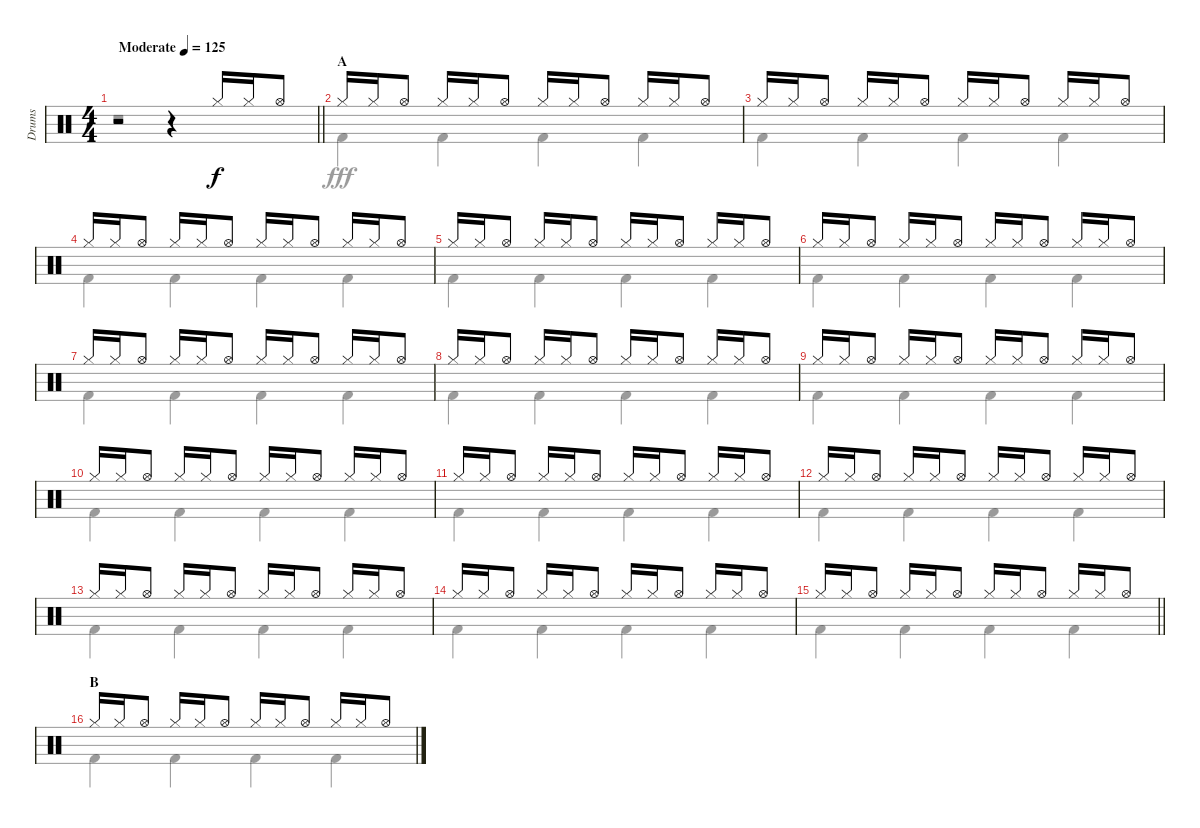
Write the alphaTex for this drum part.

\track ("Drums" "Drums") {instrument percussion}
\staff {score}
\articulation defaults
\voice
\ts (4 4)
\tempo (125 "Moderate")
\clef neutral
\barLineRight lightlight
\ks c
r.2{dy f} r.4 "Hi-Hat (closed)".16 "Hi-Hat (closed)".16 "Hi-Hat (open)".8 |
\section ("" "A")
"Hi-Hat (closed)".16 "Hi-Hat (closed)".16 "Hi-Hat (open)".8 "Hi-Hat (closed)".16 "Hi-Hat (closed)".16 "Hi-Hat (open)".8 "Hi-Hat (closed)".16 "Hi-Hat (closed)".16 "Hi-Hat (open)".8 "Hi-Hat (closed)".16 "Hi-Hat (closed)".16 "Hi-Hat (open)".8 |
"Hi-Hat (closed)".16 "Hi-Hat (closed)".16 "Hi-Hat (open)".8 "Hi-Hat (closed)".16 "Hi-Hat (closed)".16 "Hi-Hat (open)".8 "Hi-Hat (closed)".16 "Hi-Hat (closed)".16 "Hi-Hat (open)".8 "Hi-Hat (closed)".16 "Hi-Hat (closed)".16 "Hi-Hat (open)".8 |
"Hi-Hat (closed)".16 "Hi-Hat (closed)".16 "Hi-Hat (open)".8 "Hi-Hat (closed)".16 "Hi-Hat (closed)".16 "Hi-Hat (open)".8 "Hi-Hat (closed)".16 "Hi-Hat (closed)".16 "Hi-Hat (open)".8 "Hi-Hat (closed)".16 "Hi-Hat (closed)".16 "Hi-Hat (open)".8 |
"Hi-Hat (closed)".16 "Hi-Hat (closed)".16 "Hi-Hat (open)".8 "Hi-Hat (closed)".16 "Hi-Hat (closed)".16 "Hi-Hat (open)".8 "Hi-Hat (closed)".16 "Hi-Hat (closed)".16 "Hi-Hat (open)".8 "Hi-Hat (closed)".16 "Hi-Hat (closed)".16 "Hi-Hat (open)".8 |
"Hi-Hat (closed)".16 "Hi-Hat (closed)".16 "Hi-Hat (open)".8 "Hi-Hat (closed)".16 "Hi-Hat (closed)".16 "Hi-Hat (open)".8 "Hi-Hat (closed)".16 "Hi-Hat (closed)".16 "Hi-Hat (open)".8 "Hi-Hat (closed)".16 "Hi-Hat (closed)".16 "Hi-Hat (open)".8 |
"Hi-Hat (closed)".16 "Hi-Hat (closed)".16 "Hi-Hat (open)".8 "Hi-Hat (closed)".16 "Hi-Hat (closed)".16 "Hi-Hat (open)".8 "Hi-Hat (closed)".16 "Hi-Hat (closed)".16 "Hi-Hat (open)".8 "Hi-Hat (closed)".16 "Hi-Hat (closed)".16 "Hi-Hat (open)".8 |
"Hi-Hat (closed)".16 "Hi-Hat (closed)".16 "Hi-Hat (open)".8 "Hi-Hat (closed)".16 "Hi-Hat (closed)".16 "Hi-Hat (open)".8 "Hi-Hat (closed)".16 "Hi-Hat (closed)".16 "Hi-Hat (open)".8 "Hi-Hat (closed)".16 "Hi-Hat (closed)".16 "Hi-Hat (open)".8 |
"Hi-Hat (closed)".16 "Hi-Hat (closed)".16 "Hi-Hat (open)".8 "Hi-Hat (closed)".16 "Hi-Hat (closed)".16 "Hi-Hat (open)".8 "Hi-Hat (closed)".16 "Hi-Hat (closed)".16 "Hi-Hat (open)".8 "Hi-Hat (closed)".16 "Hi-Hat (closed)".16 "Hi-Hat (open)".8 |
"Hi-Hat (closed)".16 "Hi-Hat (closed)".16 "Hi-Hat (open)".8 "Hi-Hat (closed)".16 "Hi-Hat (closed)".16 "Hi-Hat (open)".8 "Hi-Hat (closed)".16 "Hi-Hat (closed)".16 "Hi-Hat (open)".8 "Hi-Hat (closed)".16 "Hi-Hat (closed)".16 "Hi-Hat (open)".8 |
"Hi-Hat (closed)".16 "Hi-Hat (closed)".16 "Hi-Hat (open)".8 "Hi-Hat (closed)".16 "Hi-Hat (closed)".16 "Hi-Hat (open)".8 "Hi-Hat (closed)".16 "Hi-Hat (closed)".16 "Hi-Hat (open)".8 "Hi-Hat (closed)".16 "Hi-Hat (closed)".16 "Hi-Hat (open)".8 |
"Hi-Hat (closed)".16 "Hi-Hat (closed)".16 "Hi-Hat (open)".8 "Hi-Hat (closed)".16 "Hi-Hat (closed)".16 "Hi-Hat (open)".8 "Hi-Hat (closed)".16 "Hi-Hat (closed)".16 "Hi-Hat (open)".8 "Hi-Hat (closed)".16 "Hi-Hat (closed)".16 "Hi-Hat (open)".8 |
"Hi-Hat (closed)".16 "Hi-Hat (closed)".16 "Hi-Hat (open)".8 "Hi-Hat (closed)".16 "Hi-Hat (closed)".16 "Hi-Hat (open)".8 "Hi-Hat (closed)".16 "Hi-Hat (closed)".16 "Hi-Hat (open)".8 "Hi-Hat (closed)".16 "Hi-Hat (closed)".16 "Hi-Hat (open)".8 |
"Hi-Hat (closed)".16 "Hi-Hat (closed)".16 "Hi-Hat (open)".8 "Hi-Hat (closed)".16 "Hi-Hat (closed)".16 "Hi-Hat (open)".8 "Hi-Hat (closed)".16 "Hi-Hat (closed)".16 "Hi-Hat (open)".8 "Hi-Hat (closed)".16 "Hi-Hat (closed)".16 "Hi-Hat (open)".8 |
\barLineRight lightlight "Hi-Hat (closed)".16 "Hi-Hat (closed)".16 "Hi-Hat (open)".8 "Hi-Hat (closed)".16 "Hi-Hat (closed)".16 "Hi-Hat (open)".8 "Hi-Hat (closed)".16 "Hi-Hat (closed)".16 "Hi-Hat (open)".8 "Hi-Hat (closed)".16 "Hi-Hat (closed)".16 "Hi-Hat (open)".8
|
\section ("" "B")
"Hi-Hat (closed)".16 "Hi-Hat (closed)".16 "Hi-Hat (open)".8 "Hi-Hat (closed)".16 "Hi-Hat (closed)".16 "Hi-Hat (open)".8 "Hi-Hat (closed)".16 "Hi-Hat (closed)".16 "Hi-Hat (open)".8 "Hi-Hat (closed)".16 "Hi-Hat (closed)".16 "Hi-Hat (open)".8
\voice
\clef neutral
\ottava regular
\simile none
\barLineRight lightlight
\ks c
r.1{dy fff} |
"Kick (hit) 2".4 "Kick (hit) 2".4 "Kick (hit) 2".4 "Kick (hit) 2".4 |
"Kick (hit) 2".4 "Kick (hit) 2".4 "Kick (hit) 2".4 "Kick (hit) 2".4 |
"Kick (hit) 2".4 "Kick (hit) 2".4 "Kick (hit) 2".4 "Kick (hit) 2".4 |
"Kick (hit) 2".4 "Kick (hit) 2".4 "Kick (hit) 2".4 "Kick (hit) 2".4 |
"Kick (hit) 2".4 "Kick (hit) 2".4 "Kick (hit) 2".4 "Kick (hit) 2".4 |
"Kick (hit) 2".4 "Kick (hit) 2".4 "Kick (hit) 2".4 "Kick (hit) 2".4 |
"Kick (hit) 2".4 "Kick (hit) 2".4 "Kick (hit) 2".4 "Kick (hit) 2".4 |
"Kick (hit) 2".4 "Kick (hit) 2".4 "Kick (hit) 2".4 "Kick (hit) 2".4 |
"Kick (hit) 2".4 "Kick (hit) 2".4 "Kick (hit) 2".4 "Kick (hit) 2".4 |
"Kick (hit) 2".4 "Kick (hit) 2".4 "Kick (hit) 2".4 "Kick (hit) 2".4 |
"Kick (hit) 2".4 "Kick (hit) 2".4 "Kick (hit) 2".4 "Kick (hit) 2".4 |
"Kick (hit) 2".4 "Kick (hit) 2".4 "Kick (hit) 2".4 "Kick (hit) 2".4 |
"Kick (hit) 2".4 "Kick (hit) 2".4 "Kick (hit) 2".4 "Kick (hit) 2".4 |
\barLineRight lightlight "Kick (hit) 2".4 "Kick (hit) 2".4 "Kick (hit) 2".4 "Kick (hit) 2".4
|
"Kick (hit) 2".4 "Kick (hit) 2".4 "Kick (hit) 2".4 "Kick (hit) 2".4
